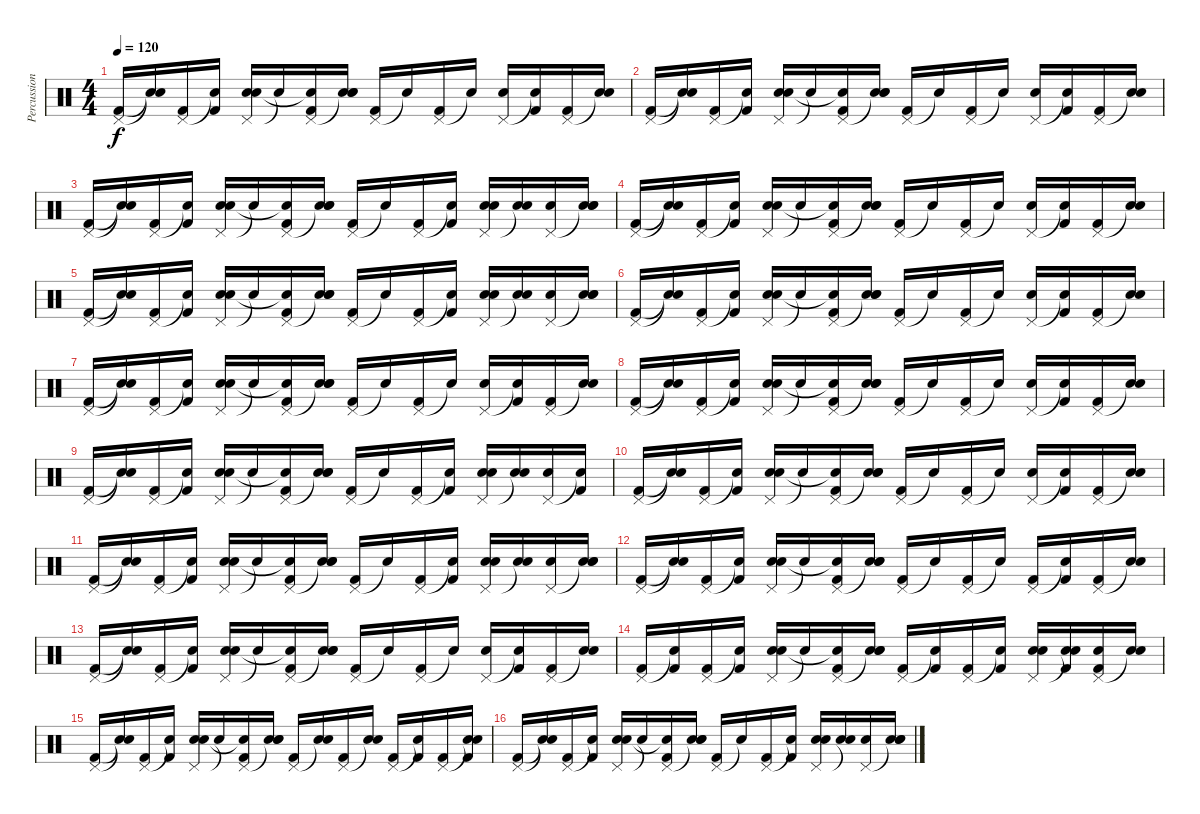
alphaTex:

\track ("Percussions" "Percussion") {instrument percussion}
\staff {score}
\articulation defaults
\ts (4 4)
\tempo 120
\clef neutral
\ks c
("Pedal Hi-Hat (hit)" "Kick (hit) 2").16{dy f} ("Snare (hit)"{t} "Snare (hit)"{t}).16 ("Pedal Hi-Hat (hit)" "Kick (hit) 2").16 ("Snare (hit)"{t} "Kick (hit) 2").16 ("Pedal Hi-Hat (hit)" "Electric Snare (hit)" "Snare (hit) 2").16 "Snare (hit)"{t}.16 ("Pedal Hi-Hat (hit)" "Snare (hit)"{t} "Kick (hit) 2").16 ("Snare (hit)"{t} "Electric Snare (hit)" "Snare (hit) 2").16 ("Pedal Hi-Hat (hit)" "Kick (hit) 2").16 "Snare (hit)"{t}.16 ("Pedal Hi-Hat (hit)" "Kick (hit) 2").16 "Snare (hit)"{t}.16 ("Pedal Hi-Hat (hit)" "Snare (hit) 2").16 ("Snare (hit)"{t} "Kick (hit) 2").16 ("Pedal Hi-Hat (hit)" "Kick (hit) 2").16 ("Snare (hit)"{t} "Electric Snare (hit)").16 |
("Pedal Hi-Hat (hit)" "Kick (hit) 2").16 ("Snare (hit)"{t} "Snare (hit)"{t}).16 ("Pedal Hi-Hat (hit)" "Kick (hit) 2").16 ("Snare (hit)"{t} "Kick (hit) 2").16 ("Pedal Hi-Hat (hit)" "Electric Snare (hit)" "Snare (hit) 2").16 "Snare (hit)"{t}.16 ("Pedal Hi-Hat (hit)" "Snare (hit)"{t} "Kick (hit) 2").16 ("Snare (hit)"{t} "Electric Snare (hit)" "Snare (hit) 2").16 ("Pedal Hi-Hat (hit)" "Kick (hit) 2").16 "Snare (hit)"{t}.16 ("Pedal Hi-Hat (hit)" "Kick (hit) 2").16 "Snare (hit)"{t}.16 ("Pedal Hi-Hat (hit)" "Snare (hit) 2").16 ("Snare (hit)"{t} "Kick (hit) 2").16 ("Pedal Hi-Hat (hit)" "Kick (hit) 2").16 ("Snare (hit)"{t} "Electric Snare (hit)").16 |
("Pedal Hi-Hat (hit)" "Kick (hit) 2").16 ("Snare (hit)"{t} "Snare (hit)"{t}).16 ("Pedal Hi-Hat (hit)" "Kick (hit) 2").16 ("Snare (hit)"{t} "Kick (hit) 2").16 ("Pedal Hi-Hat (hit)" "Electric Snare (hit)" "Snare (hit) 2").16 "Snare (hit)"{t}.16 ("Pedal Hi-Hat (hit)" "Snare (hit)"{t} "Kick (hit) 2").16 ("Snare (hit)"{t} "Electric Snare (hit)" "Snare (hit) 2").16 ("Pedal Hi-Hat (hit)" "Kick (hit) 2").16 "Snare (hit)"{t}.16 ("Pedal Hi-Hat (hit)" "Kick (hit) 2").16 ("Snare (hit)"{t} "Kick (hit) 2").16 ("Pedal Hi-Hat (hit)" "Electric Snare (hit)" "Snare (hit) 2").16 ("Snare (hit)"{t} "Snare (hit) 2").16 ("Pedal Hi-Hat (hit)" "Snare (hit) 2").16 ("Snare (hit)"{t} "Electric Snare (hit)" "Snare (hit) 2").16 |
("Pedal Hi-Hat (hit)" "Kick (hit) 2").16 ("Snare (hit)"{t} "Snare (hit)"{t}).16 ("Pedal Hi-Hat (hit)" "Kick (hit) 2").16 ("Snare (hit)"{t} "Kick (hit) 2").16 ("Pedal Hi-Hat (hit)" "Electric Snare (hit)" "Snare (hit) 2").16 "Snare (hit)"{t}.16 ("Pedal Hi-Hat (hit)" "Snare (hit)"{t} "Kick (hit) 2").16 ("Snare (hit)"{t} "Electric Snare (hit)" "Snare (hit) 2").16 ("Pedal Hi-Hat (hit)" "Kick (hit) 2").16 "Snare (hit)"{t}.16 ("Pedal Hi-Hat (hit)" "Kick (hit) 2").16 "Snare (hit)"{t}.16 ("Pedal Hi-Hat (hit)" "Snare (hit) 2").16 ("Snare (hit)"{t} "Kick (hit) 2").16 ("Pedal Hi-Hat (hit)" "Kick (hit) 2").16 ("Snare (hit)"{t} "Electric Snare (hit)").16 |
("Pedal Hi-Hat (hit)" "Kick (hit) 2").16 ("Snare (hit)"{t} "Snare (hit)"{t}).16 ("Pedal Hi-Hat (hit)" "Kick (hit) 2").16 ("Snare (hit)"{t} "Kick (hit) 2").16 ("Pedal Hi-Hat (hit)" "Electric Snare (hit)" "Snare (hit) 2").16 "Snare (hit)"{t}.16 ("Pedal Hi-Hat (hit)" "Snare (hit)"{t} "Kick (hit) 2").16 ("Snare (hit)"{t} "Electric Snare (hit)" "Snare (hit) 2").16 ("Pedal Hi-Hat (hit)" "Kick (hit) 2").16 "Snare (hit)"{t}.16 ("Pedal Hi-Hat (hit)" "Kick (hit) 2").16 ("Snare (hit)"{t} "Kick (hit) 2").16 ("Pedal Hi-Hat (hit)" "Electric Snare (hit)" "Snare (hit) 2").16 ("Snare (hit)"{t} "Snare (hit) 2").16 ("Pedal Hi-Hat (hit)" "Snare (hit) 2").16 ("Snare (hit)"{t} "Electric Snare (hit)" "Snare (hit) 2").16 |
("Pedal Hi-Hat (hit)" "Kick (hit) 2").16 ("Snare (hit)"{t} "Snare (hit)"{t}).16 ("Pedal Hi-Hat (hit)" "Kick (hit) 2").16 ("Snare (hit)"{t} "Kick (hit) 2").16 ("Pedal Hi-Hat (hit)" "Electric Snare (hit)" "Snare (hit) 2").16 "Snare (hit)"{t}.16 ("Pedal Hi-Hat (hit)" "Snare (hit)"{t} "Kick (hit) 2").16 ("Snare (hit)"{t} "Electric Snare (hit)" "Snare (hit) 2").16 ("Pedal Hi-Hat (hit)" "Kick (hit) 2").16 "Snare (hit)"{t}.16 ("Pedal Hi-Hat (hit)" "Kick (hit) 2").16 "Snare (hit)"{t}.16 ("Pedal Hi-Hat (hit)" "Snare (hit) 2").16 ("Snare (hit)"{t} "Kick (hit) 2").16 ("Pedal Hi-Hat (hit)" "Kick (hit) 2").16 ("Snare (hit)"{t} "Electric Snare (hit)").16 |
("Pedal Hi-Hat (hit)" "Kick (hit) 2").16 ("Snare (hit)"{t} "Snare (hit)"{t}).16 ("Pedal Hi-Hat (hit)" "Kick (hit) 2").16 ("Snare (hit)"{t} "Kick (hit) 2").16 ("Pedal Hi-Hat (hit)" "Electric Snare (hit)" "Snare (hit) 2").16 "Snare (hit)"{t}.16 ("Pedal Hi-Hat (hit)" "Snare (hit)"{t} "Kick (hit) 2").16 ("Snare (hit)"{t} "Electric Snare (hit)" "Snare (hit) 2").16 ("Pedal Hi-Hat (hit)" "Kick (hit) 2").16 "Snare (hit)"{t}.16 ("Pedal Hi-Hat (hit)" "Kick (hit) 2").16 "Snare (hit)"{t}.16 ("Pedal Hi-Hat (hit)" "Snare (hit) 2").16 ("Snare (hit)"{t} "Kick (hit) 2").16 ("Pedal Hi-Hat (hit)" "Kick (hit) 2").16 ("Snare (hit)"{t} "Electric Snare (hit)").16 |
("Pedal Hi-Hat (hit)" "Kick (hit) 2").16 ("Snare (hit)"{t} "Snare (hit)"{t}).16 ("Pedal Hi-Hat (hit)" "Kick (hit) 2").16 ("Snare (hit)"{t} "Kick (hit) 2").16 ("Pedal Hi-Hat (hit)" "Electric Snare (hit)" "Snare (hit) 2").16 "Snare (hit)"{t}.16 ("Pedal Hi-Hat (hit)" "Snare (hit)"{t} "Kick (hit) 2").16 ("Snare (hit)"{t} "Electric Snare (hit)" "Snare (hit) 2").16 ("Pedal Hi-Hat (hit)" "Kick (hit) 2").16 "Snare (hit)"{t}.16 ("Pedal Hi-Hat (hit)" "Kick (hit) 2").16 "Snare (hit)"{t}.16 ("Pedal Hi-Hat (hit)" "Snare (hit) 2").16 ("Snare (hit)"{t} "Kick (hit) 2").16 ("Pedal Hi-Hat (hit)" "Kick (hit) 2").16 ("Snare (hit)"{t} "Electric Snare (hit)").16 |
("Pedal Hi-Hat (hit)" "Kick (hit) 2").16 ("Snare (hit)"{t} "Snare (hit)"{t}).16 ("Pedal Hi-Hat (hit)" "Kick (hit) 2").16 ("Snare (hit)"{t} "Kick (hit) 2").16 ("Pedal Hi-Hat (hit)" "Electric Snare (hit)" "Snare (hit) 2").16 "Snare (hit)"{t}.16 ("Pedal Hi-Hat (hit)" "Snare (hit)"{t} "Kick (hit) 2").16 ("Snare (hit)"{t} "Electric Snare (hit)" "Snare (hit) 2").16 ("Pedal Hi-Hat (hit)" "Kick (hit) 2").16 "Snare (hit)"{t}.16 ("Pedal Hi-Hat (hit)" "Kick (hit) 2").16 ("Snare (hit)"{t} "Kick (hit) 2").16 ("Pedal Hi-Hat (hit)" "Electric Snare (hit)" "Snare (hit) 2").16 ("Snare (hit)"{t} "Snare (hit) 2").16 ("Pedal Hi-Hat (hit)" "Snare (hit) 2").16 ("Snare (hit)"{t} "Kick (hit) 2").16 |
("Pedal Hi-Hat (hit)" "Kick (hit) 2").16 ("Snare (hit)"{t} "Snare (hit)"{t}).16 ("Pedal Hi-Hat (hit)" "Kick (hit) 2").16 ("Snare (hit)"{t} "Kick (hit) 2").16 ("Pedal Hi-Hat (hit)" "Electric Snare (hit)" "Snare (hit) 2").16 "Snare (hit)"{t}.16 ("Pedal Hi-Hat (hit)" "Snare (hit)"{t} "Kick (hit) 2").16 ("Snare (hit)"{t} "Electric Snare (hit)" "Snare (hit) 2").16 ("Pedal Hi-Hat (hit)" "Kick (hit) 2").16 "Snare (hit)"{t}.16 ("Pedal Hi-Hat (hit)" "Kick (hit) 2").16 "Snare (hit)"{t}.16 ("Pedal Hi-Hat (hit)" "Snare (hit) 2").16 ("Snare (hit)"{t} "Kick (hit) 2").16 ("Pedal Hi-Hat (hit)" "Kick (hit) 2").16 ("Snare (hit)"{t} "Electric Snare (hit)").16 |
("Pedal Hi-Hat (hit)" "Kick (hit) 2").16 ("Snare (hit)"{t} "Snare (hit)"{t}).16 ("Pedal Hi-Hat (hit)" "Kick (hit) 2").16 ("Snare (hit)"{t} "Kick (hit) 2").16 ("Pedal Hi-Hat (hit)" "Electric Snare (hit)" "Snare (hit) 2").16 "Snare (hit)"{t}.16 ("Pedal Hi-Hat (hit)" "Snare (hit)"{t} "Kick (hit) 2").16 ("Snare (hit)"{t} "Electric Snare (hit)" "Snare (hit) 2").16 ("Pedal Hi-Hat (hit)" "Kick (hit) 2").16 "Snare (hit)"{t}.16 ("Pedal Hi-Hat (hit)" "Kick (hit) 2").16 ("Snare (hit)"{t} "Kick (hit) 2").16 ("Pedal Hi-Hat (hit)" "Electric Snare (hit)" "Snare (hit) 2").16 ("Snare (hit)"{t} "Snare (hit) 2").16 ("Pedal Hi-Hat (hit)" "Snare (hit) 2").16 ("Snare (hit)"{t} "Electric Snare (hit)" "Snare (hit) 2").16 |
("Pedal Hi-Hat (hit)" "Kick (hit) 2").16 ("Snare (hit)"{t} "Snare (hit)"{t}).16 ("Pedal Hi-Hat (hit)" "Kick (hit) 2").16 ("Snare (hit)"{t} "Kick (hit) 2").16 ("Pedal Hi-Hat (hit)" "Electric Snare (hit)" "Snare (hit) 2").16 "Snare (hit)"{t}.16 ("Pedal Hi-Hat (hit)" "Snare (hit)"{t} "Kick (hit) 2").16 ("Snare (hit)"{t} "Electric Snare (hit)" "Snare (hit) 2").16 ("Pedal Hi-Hat (hit)" "Kick (hit) 2").16 "Snare (hit)"{t}.16 ("Pedal Hi-Hat (hit)" "Kick (hit) 2").16 "Snare (hit)"{t}.16 ("Pedal Hi-Hat (hit)" "Kick (hit) 2").16 ("Snare (hit)"{t} "Kick (hit) 2").16 ("Pedal Hi-Hat (hit)" "Kick (hit) 2").16 ("Snare (hit)"{t} "Electric Snare (hit)").16 |
("Pedal Hi-Hat (hit)" "Kick (hit) 2").16 ("Snare (hit)"{t} "Snare (hit)"{t}).16 ("Pedal Hi-Hat (hit)" "Kick (hit) 2").16 ("Snare (hit)"{t} "Kick (hit) 2").16 ("Pedal Hi-Hat (hit)" "Electric Snare (hit)" "Snare (hit) 2").16 "Snare (hit)"{t}.16 ("Pedal Hi-Hat (hit)" "Snare (hit)"{t} "Kick (hit) 2").16 ("Snare (hit)"{t} "Electric Snare (hit)" "Snare (hit) 2").16 ("Pedal Hi-Hat (hit)" "Kick (hit) 2").16 "Snare (hit)"{t}.16 ("Pedal Hi-Hat (hit)" "Kick (hit) 2").16 "Snare (hit)"{t}.16 ("Pedal Hi-Hat (hit)" "Snare (hit) 2").16 ("Snare (hit)"{t} "Kick (hit) 2").16 ("Pedal Hi-Hat (hit)" "Kick (hit) 2").16 ("Snare (hit)"{t} "Electric Snare (hit)").16 |
("Pedal Hi-Hat (hit)" "Kick (hit) 2").16 ("Snare (hit)"{t} "Kick (hit) 2").16 ("Pedal Hi-Hat (hit)" "Kick (hit) 2").16 ("Snare (hit)"{t} "Kick (hit) 2").16 ("Pedal Hi-Hat (hit)" "Electric Snare (hit)" "Snare (hit) 2").16 "Snare (hit)"{t}.16 ("Pedal Hi-Hat (hit)" "Snare (hit)"{t} "Kick (hit) 2").16 ("Snare (hit)"{t} "Electric Snare (hit)" "Snare (hit) 2").16 ("Pedal Hi-Hat (hit)" "Kick (hit) 2").16 ("Snare (hit)"{t} "Kick (hit) 2").16 ("Pedal Hi-Hat (hit)" "Kick (hit) 2").16 ("Snare (hit)"{t} "Kick (hit) 2").16 ("Pedal Hi-Hat (hit)" "Electric Snare (hit)" "Snare (hit) 2").16 ("Snare (hit)"{t} "Snare (hit) 2" "Kick (hit) 2").16 ("Pedal Hi-Hat (hit)" "Electric Snare (hit)" "Kick (hit) 2").16 ("Snare (hit)"{t} "Snare (hit) 2").16 |
("Pedal Hi-Hat (hit)" "Kick (hit) 2").16 ("Snare (hit)"{t} "Snare (hit)"{t}).16 ("Pedal Hi-Hat (hit)" "Kick (hit) 2").16 ("Snare (hit)"{t} "Kick (hit) 2").16 ("Pedal Hi-Hat (hit)" "Electric Snare (hit)" "Snare (hit) 2").16 "Snare (hit)"{t}.16 ("Pedal Hi-Hat (hit)" "Snare (hit)"{t} "Kick (hit) 2").16 ("Snare (hit)"{t} "Electric Snare (hit)" "Snare (hit) 2").16 ("Pedal Hi-Hat (hit)" "Kick (hit) 2").16 ("Snare (hit)"{t} "Electric Snare (hit)").16 ("Pedal Hi-Hat (hit)" "Kick (hit) 2").16 ("Snare (hit)"{t} "Snare (hit) 2").16 ("Pedal Hi-Hat (hit)" "Kick (hit) 2").16 ("Snare (hit)"{t} "Kick (hit) 2").16 ("Pedal Hi-Hat (hit)" "Kick (hit) 2").16 ("Snare (hit)"{t} "Electric Snare (hit)" "Kick (hit) 2").16 |
("Pedal Hi-Hat (hit)" "Kick (hit) 2").16 ("Snare (hit)"{t} "Snare (hit)"{t}).16 ("Pedal Hi-Hat (hit)" "Kick (hit) 2").16 ("Snare (hit)"{t} "Kick (hit) 2").16 ("Pedal Hi-Hat (hit)" "Electric Snare (hit)" "Snare (hit) 2").16 "Snare (hit)"{t}.16 ("Pedal Hi-Hat (hit)" "Snare (hit)"{t} "Kick (hit) 2").16 ("Snare (hit)"{t} "Electric Snare (hit)" "Snare (hit) 2").16 ("Pedal Hi-Hat (hit)" "Kick (hit) 2").16 "Snare (hit)"{t}.16 ("Pedal Hi-Hat (hit)" "Kick (hit) 2").16 ("Snare (hit)"{t} "Kick (hit) 2").16 ("Pedal Hi-Hat (hit)" "Electric Snare (hit)" "Snare (hit) 2").16 ("Snare (hit)"{t} "Snare (hit) 2").16 ("Pedal Hi-Hat (hit)" "Snare (hit) 2").16 ("Snare (hit)"{t} "Electric Snare (hit)" "Snare (hit) 2").16
